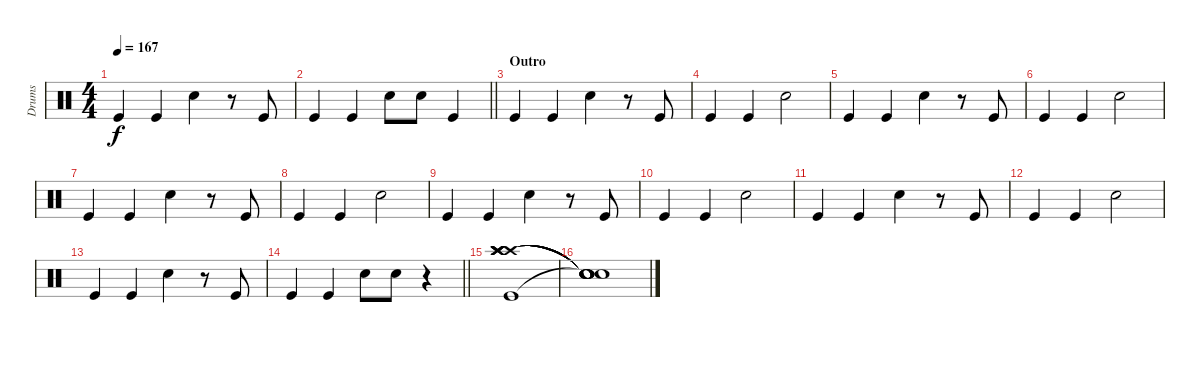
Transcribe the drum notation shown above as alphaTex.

\track ("Drums" "Drums") {instrument percussion}
\staff {score}
\articulation defaults
\ts (4 4)
\tempo 167
\clef neutral
\ks c "Kick (hit)".4{dy f} "Kick (hit)".4 "Electric Snare (hit)".4
r.8 "Kick (hit)".8 |
\barLineRight lightlight "Kick (hit)".4 "Kick (hit)".4 "Electric Snare (hit)".8 "Electric Snare (hit)".8 "Kick (hit)".4
|
\section ("" "Outro")
"Kick (hit)".4 "Kick (hit)".4 "Electric Snare (hit)".4 r.8 "Kick (hit)".8 |
"Kick (hit)".4 "Kick (hit)".4 "Electric Snare (hit)".2 |
"Kick (hit)".4 "Kick (hit)".4 "Electric Snare (hit)".4 r.8 "Kick (hit)".8 |
"Kick (hit)".4 "Kick (hit)".4 "Electric Snare (hit)".2 |
"Kick (hit)".4 "Kick (hit)".4 "Electric Snare (hit)".4 r.8 "Kick (hit)".8 |
"Kick (hit)".4 "Kick (hit)".4 "Electric Snare (hit)".2 |
"Kick (hit)".4 "Kick (hit)".4 "Electric Snare (hit)".4 r.8 "Kick (hit)".8 |
"Kick (hit)".4 "Kick (hit)".4 "Electric Snare (hit)".2 |
"Kick (hit)".4 "Kick (hit)".4 "Electric Snare (hit)".4 r.8 "Kick (hit)".8 |
"Kick (hit)".4 "Kick (hit)".4 "Electric Snare (hit)".2 |
"Kick (hit)".4 "Kick (hit)".4 "Electric Snare (hit)".4 r.8 "Kick (hit)".8 |
\barLineRight lightlight "Kick (hit)".4 "Kick (hit)".4 "Electric Snare (hit)".8 "Electric Snare (hit)".8
r.4 |
("Crash high (hit)" "Kick (hit)" "Crash high (hit)" "Crash high (hit)" "Crash high (hit)" "Crash high (hit)").1 |
("Snare (hit)"{t} "Snare (hit)"{t} "Snare (hit)"{t} "Snare (hit)"{t} "Snare (hit)"{t} "Snare (hit)"{t}).1
